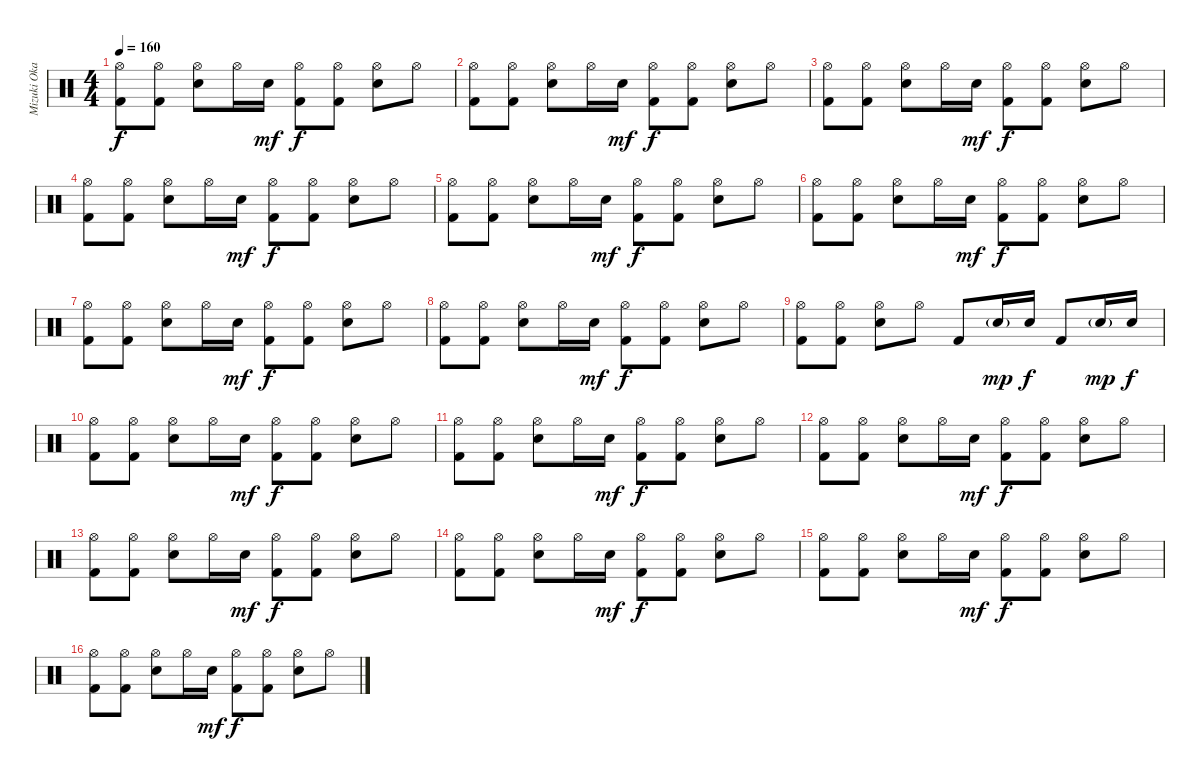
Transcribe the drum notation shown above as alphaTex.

\track ("Mizuki Okajima (Drums)" "Mizuki Oka") {instrument percussion}
\staff {score}
\articulation defaults
\ts (4 4)
\tempo 160
\clef neutral
\ks c
("Hi-Hat (open)" "Kick (hit) 2").8{dy f} ("Hi-Hat (open)" "Kick (hit) 2").8 ("Hi-Hat (open)" "Snare (hit) 2").8 "Hi-Hat (open)".16 "Snare (hit) 2".16{dy mf} ("Hi-Hat (open)" "Kick (hit) 2").8{dy f} ("Hi-Hat (open)" "Kick (hit) 2").8 ("Hi-Hat (open)" "Snare (hit) 2").8 "Hi-Hat (open)".8 |
("Hi-Hat (open)" "Kick (hit) 2").8 ("Hi-Hat (open)" "Kick (hit) 2").8 ("Hi-Hat (open)" "Snare (hit) 2").8 "Hi-Hat (open)".16 "Snare (hit) 2".16{dy mf} ("Hi-Hat (open)" "Kick (hit) 2").8{dy f} ("Hi-Hat (open)" "Kick (hit) 2").8 ("Hi-Hat (open)" "Snare (hit) 2").8 "Hi-Hat (open)".8 |
("Hi-Hat (open)" "Kick (hit) 2").8 ("Hi-Hat (open)" "Kick (hit) 2").8 ("Hi-Hat (open)" "Snare (hit) 2").8 "Hi-Hat (open)".16 "Snare (hit) 2".16{dy mf} ("Hi-Hat (open)" "Kick (hit) 2").8{dy f} ("Hi-Hat (open)" "Kick (hit) 2").8 ("Hi-Hat (open)" "Snare (hit) 2").8 "Hi-Hat (open)".8 |
("Hi-Hat (open)" "Kick (hit) 2").8 ("Hi-Hat (open)" "Kick (hit) 2").8 ("Hi-Hat (open)" "Snare (hit) 2").8 "Hi-Hat (open)".16 "Snare (hit) 2".16{dy mf} ("Hi-Hat (open)" "Kick (hit) 2").8{dy f} ("Hi-Hat (open)" "Kick (hit) 2").8 ("Hi-Hat (open)" "Snare (hit) 2").8 "Hi-Hat (open)".8 |
("Hi-Hat (open)" "Kick (hit) 2").8 ("Hi-Hat (open)" "Kick (hit) 2").8 ("Hi-Hat (open)" "Snare (hit) 2").8 "Hi-Hat (open)".16 "Snare (hit) 2".16{dy mf} ("Hi-Hat (open)" "Kick (hit) 2").8{dy f} ("Hi-Hat (open)" "Kick (hit) 2").8 ("Hi-Hat (open)" "Snare (hit) 2").8 "Hi-Hat (open)".8 |
("Hi-Hat (open)" "Kick (hit) 2").8 ("Hi-Hat (open)" "Kick (hit) 2").8 ("Hi-Hat (open)" "Snare (hit) 2").8 "Hi-Hat (open)".16 "Snare (hit) 2".16{dy mf} ("Hi-Hat (open)" "Kick (hit) 2").8{dy f} ("Hi-Hat (open)" "Kick (hit) 2").8 ("Hi-Hat (open)" "Snare (hit) 2").8 "Hi-Hat (open)".8 |
("Hi-Hat (open)" "Kick (hit) 2").8 ("Hi-Hat (open)" "Kick (hit) 2").8 ("Hi-Hat (open)" "Snare (hit) 2").8 "Hi-Hat (open)".16 "Snare (hit) 2".16{dy mf} ("Hi-Hat (open)" "Kick (hit) 2").8{dy f} ("Hi-Hat (open)" "Kick (hit) 2").8 ("Hi-Hat (open)" "Snare (hit) 2").8 "Hi-Hat (open)".8 |
("Hi-Hat (open)" "Kick (hit) 2").8 ("Hi-Hat (open)" "Kick (hit) 2").8 ("Hi-Hat (open)" "Snare (hit) 2").8 "Hi-Hat (open)".16 "Snare (hit) 2".16{dy mf} ("Hi-Hat (open)" "Kick (hit) 2").8{dy f} ("Hi-Hat (open)" "Kick (hit) 2").8 ("Hi-Hat (open)" "Snare (hit) 2").8 "Hi-Hat (open)".8 |
("Hi-Hat (open)" "Kick (hit) 2").8 ("Hi-Hat (open)" "Kick (hit) 2").8 ("Hi-Hat (open)" "Snare (hit) 2").8 "Hi-Hat (open)".8 "Kick (hit) 2".8 "Snare (hit) 2"{g}.16{dy mp} "Snare (hit) 2".16{dy f} "Kick (hit) 2".8 "Snare (hit) 2"{g}.16{dy mp} "Snare (hit) 2".16{dy f} |
("Hi-Hat (open)" "Kick (hit) 2").8 ("Hi-Hat (open)" "Kick (hit) 2").8 ("Hi-Hat (open)" "Snare (hit) 2").8 "Hi-Hat (open)".16 "Snare (hit) 2".16{dy mf} ("Hi-Hat (open)" "Kick (hit) 2").8{dy f} ("Hi-Hat (open)" "Kick (hit) 2").8 ("Hi-Hat (open)" "Snare (hit) 2").8 "Hi-Hat (open)".8 |
("Hi-Hat (open)" "Kick (hit) 2").8 ("Hi-Hat (open)" "Kick (hit) 2").8 ("Hi-Hat (open)" "Snare (hit) 2").8 "Hi-Hat (open)".16 "Snare (hit) 2".16{dy mf} ("Hi-Hat (open)" "Kick (hit) 2").8{dy f} ("Hi-Hat (open)" "Kick (hit) 2").8 ("Hi-Hat (open)" "Snare (hit) 2").8 "Hi-Hat (open)".8 |
("Hi-Hat (open)" "Kick (hit) 2").8 ("Hi-Hat (open)" "Kick (hit) 2").8 ("Hi-Hat (open)" "Snare (hit) 2").8 "Hi-Hat (open)".16 "Snare (hit) 2".16{dy mf} ("Hi-Hat (open)" "Kick (hit) 2").8{dy f} ("Hi-Hat (open)" "Kick (hit) 2").8 ("Hi-Hat (open)" "Snare (hit) 2").8 "Hi-Hat (open)".8 |
("Hi-Hat (open)" "Kick (hit) 2").8 ("Hi-Hat (open)" "Kick (hit) 2").8 ("Hi-Hat (open)" "Snare (hit) 2").8 "Hi-Hat (open)".16 "Snare (hit) 2".16{dy mf} ("Hi-Hat (open)" "Kick (hit) 2").8{dy f} ("Hi-Hat (open)" "Kick (hit) 2").8 ("Hi-Hat (open)" "Snare (hit) 2").8 "Hi-Hat (open)".8 |
("Hi-Hat (open)" "Kick (hit) 2").8 ("Hi-Hat (open)" "Kick (hit) 2").8 ("Hi-Hat (open)" "Snare (hit) 2").8 "Hi-Hat (open)".16 "Snare (hit) 2".16{dy mf} ("Hi-Hat (open)" "Kick (hit) 2").8{dy f} ("Hi-Hat (open)" "Kick (hit) 2").8 ("Hi-Hat (open)" "Snare (hit) 2").8 "Hi-Hat (open)".8 |
("Hi-Hat (open)" "Kick (hit) 2").8 ("Hi-Hat (open)" "Kick (hit) 2").8 ("Hi-Hat (open)" "Snare (hit) 2").8 "Hi-Hat (open)".16 "Snare (hit) 2".16{dy mf} ("Hi-Hat (open)" "Kick (hit) 2").8{dy f} ("Hi-Hat (open)" "Kick (hit) 2").8 ("Hi-Hat (open)" "Snare (hit) 2").8 "Hi-Hat (open)".8 |
("Hi-Hat (open)" "Kick (hit) 2").8 ("Hi-Hat (open)" "Kick (hit) 2").8 ("Hi-Hat (open)" "Snare (hit) 2").8 "Hi-Hat (open)".16 "Snare (hit) 2".16{dy mf} ("Hi-Hat (open)" "Kick (hit) 2").8{dy f} ("Hi-Hat (open)" "Kick (hit) 2").8 ("Hi-Hat (open)" "Snare (hit) 2").8 "Hi-Hat (open)".8
